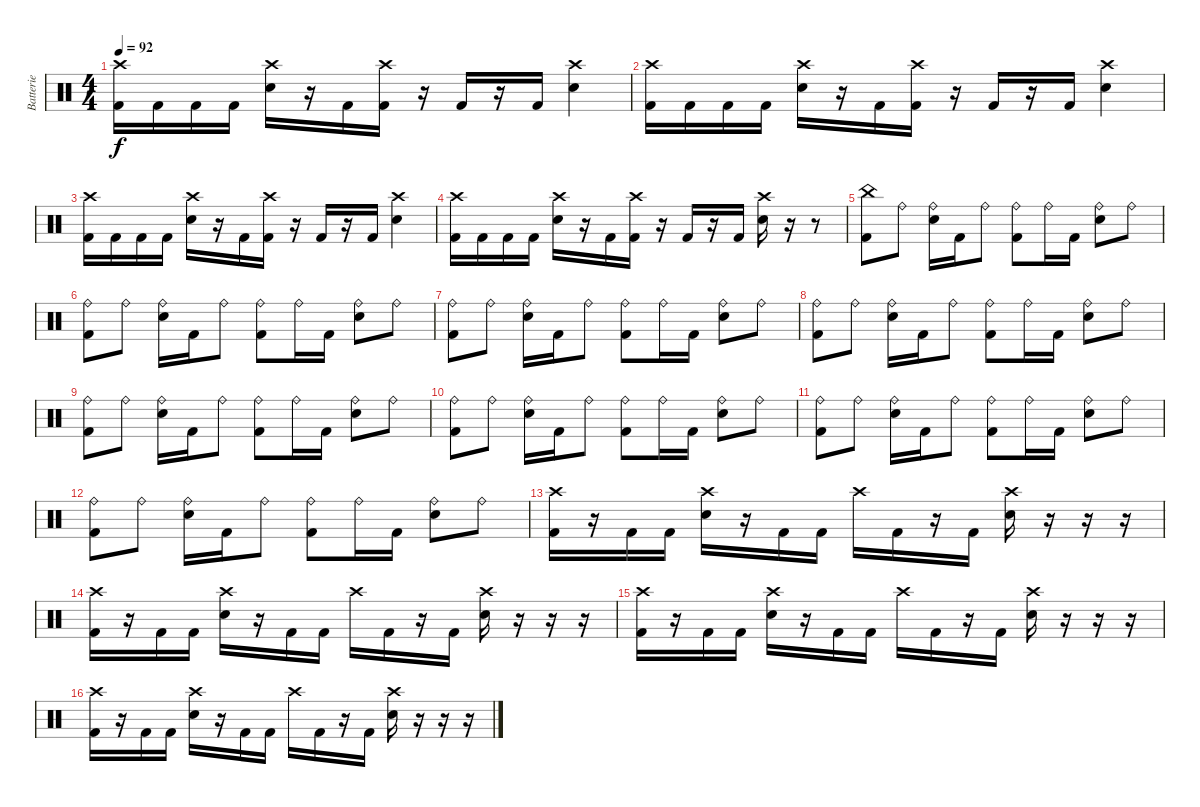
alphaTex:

\track ("Batterie" "Batterie") {instrument percussion}
\staff {score}
\articulation defaults
\ts (4 4)
\section ("" "")
\tempo 92
\clef neutral
\ks c
("Crash high (hit)" "Kick (hit) 2").16{dy f} "Kick (hit) 2".16 "Kick (hit) 2".16 "Kick (hit) 2".16 ("Crash high (hit)" "Electric Snare (hit)").16 r.16 "Kick (hit) 2".16 ("Crash high (hit)" "Kick (hit) 2").16 r.16 "Kick (hit) 2".16 r.16 "Kick (hit) 2".16 ("Crash high (hit)" "Electric Snare (hit)").4 |
("Crash high (hit)" "Kick (hit) 2").16 "Kick (hit) 2".16 "Kick (hit) 2".16 "Kick (hit) 2".16 ("Crash high (hit)" "Electric Snare (hit)").16 r.16 "Kick (hit) 2".16 ("Crash high (hit)" "Kick (hit) 2").16 r.16 "Kick (hit) 2".16 r.16 "Kick (hit) 2".16 ("Crash high (hit)" "Electric Snare (hit)").4 |
("Crash high (hit)" "Kick (hit) 2").16 "Kick (hit) 2".16 "Kick (hit) 2".16 "Kick (hit) 2".16 ("Crash high (hit)" "Electric Snare (hit)").16 r.16 "Kick (hit) 2".16 ("Crash high (hit)" "Kick (hit) 2").16 r.16 "Kick (hit) 2".16 r.16 "Kick (hit) 2".16 ("Crash high (hit)" "Electric Snare (hit)").4 |
("Crash high (hit)" "Kick (hit) 2").16 "Kick (hit) 2".16 "Kick (hit) 2".16 "Kick (hit) 2".16 ("Crash high (hit)" "Electric Snare (hit)").16 r.16 "Kick (hit) 2".16 ("Crash high (hit)" "Kick (hit) 2").16 r.16 "Kick (hit) 2".16 r.16 "Kick (hit) 2".16 ("Crash high (hit)" "Electric Snare (hit)").16 r.16 r.8 |
\section ("" "")
("China (hit)" "Kick (hit) 2").8 "Ride (bell)".8 ("Ride (bell)" "Electric Snare (hit)").16 "Kick (hit) 2".16 "Ride (bell)".8 ("Ride (bell)" "Kick (hit) 2").8 "Ride (bell)".16 "Kick (hit) 2".16 ("Ride (bell)" "Electric Snare (hit)").8 "Ride (bell)".8 |
("Ride (bell)" "Kick (hit) 2").8 "Ride (bell)".8 ("Ride (bell)" "Electric Snare (hit)").16 "Kick (hit) 2".16 "Ride (bell)".8 ("Ride (bell)" "Kick (hit) 2").8 "Ride (bell)".16 "Kick (hit) 2".16 ("Ride (bell)" "Electric Snare (hit)").8 "Ride (bell)".8 |
("Ride (bell)" "Kick (hit) 2").8 "Ride (bell)".8 ("Ride (bell)" "Electric Snare (hit)").16 "Kick (hit) 2".16 "Ride (bell)".8 ("Ride (bell)" "Kick (hit) 2").8 "Ride (bell)".16 "Kick (hit) 2".16 ("Ride (bell)" "Electric Snare (hit)").8 "Ride (bell)".8 |
("Ride (bell)" "Kick (hit) 2").8 "Ride (bell)".8 ("Ride (bell)" "Electric Snare (hit)").16 "Kick (hit) 2".16 "Ride (bell)".8 ("Ride (bell)" "Kick (hit) 2").8 "Ride (bell)".16 "Kick (hit) 2".16 ("Ride (bell)" "Electric Snare (hit)").8 "Ride (bell)".8 |
("Ride (bell)" "Kick (hit) 2").8 "Ride (bell)".8 ("Ride (bell)" "Electric Snare (hit)").16 "Kick (hit) 2".16 "Ride (bell)".8 ("Ride (bell)" "Kick (hit) 2").8 "Ride (bell)".16 "Kick (hit) 2".16 ("Ride (bell)" "Electric Snare (hit)").8 "Ride (bell)".8 |
("Ride (bell)" "Kick (hit) 2").8 "Ride (bell)".8 ("Ride (bell)" "Electric Snare (hit)").16 "Kick (hit) 2".16 "Ride (bell)".8 ("Ride (bell)" "Kick (hit) 2").8 "Ride (bell)".16 "Kick (hit) 2".16 ("Ride (bell)" "Electric Snare (hit)").8 "Ride (bell)".8 |
("Ride (bell)" "Kick (hit) 2").8 "Ride (bell)".8 ("Ride (bell)" "Electric Snare (hit)").16 "Kick (hit) 2".16 "Ride (bell)".8 ("Ride (bell)" "Kick (hit) 2").8 "Ride (bell)".16 "Kick (hit) 2".16 ("Ride (bell)" "Electric Snare (hit)").8 "Ride (bell)".8 |
("Ride (bell)" "Kick (hit) 2").8 "Ride (bell)".8 ("Ride (bell)" "Electric Snare (hit)").16 "Kick (hit) 2".16 "Ride (bell)".8 ("Ride (bell)" "Kick (hit) 2").8 "Ride (bell)".16 "Kick (hit) 2".16 ("Ride (bell)" "Electric Snare (hit)").8 "Ride (bell)".8 |
\section ("" "")
("Crash high (hit)" "Kick (hit) 2").16 r.16 "Kick (hit) 2".16 "Kick (hit) 2".16 ("Crash high (hit)" "Electric Snare (hit)").16 r.16 "Kick (hit) 2".16 "Kick (hit) 2".16 "Crash high (hit)".16 "Kick (hit) 2".16 r.16 "Kick (hit) 2".16 ("Crash high (hit)" "Electric Snare (hit)").16 r.16 r.16 r.16 |
("Crash high (hit)" "Kick (hit) 2").16 r.16 "Kick (hit) 2".16 "Kick (hit) 2".16 ("Crash high (hit)" "Electric Snare (hit)").16 r.16 "Kick (hit) 2".16 "Kick (hit) 2".16 "Crash high (hit)".16 "Kick (hit) 2".16 r.16 "Kick (hit) 2".16 ("Crash high (hit)" "Electric Snare (hit)").16 r.16 r.16 r.16 |
("Crash high (hit)" "Kick (hit) 2").16 r.16 "Kick (hit) 2".16 "Kick (hit) 2".16 ("Crash high (hit)" "Electric Snare (hit)").16 r.16 "Kick (hit) 2".16 "Kick (hit) 2".16 "Crash high (hit)".16 "Kick (hit) 2".16 r.16 "Kick (hit) 2".16 ("Crash high (hit)" "Electric Snare (hit)").16 r.16 r.16 r.16 |
("Crash high (hit)" "Kick (hit) 2").16 r.16 "Kick (hit) 2".16 "Kick (hit) 2".16 ("Crash high (hit)" "Electric Snare (hit)").16 r.16 "Kick (hit) 2".16 "Kick (hit) 2".16 "Crash high (hit)".16 "Kick (hit) 2".16 r.16 "Kick (hit) 2".16 ("Crash high (hit)" "Electric Snare (hit)").16 r.16 r.16 r.16
